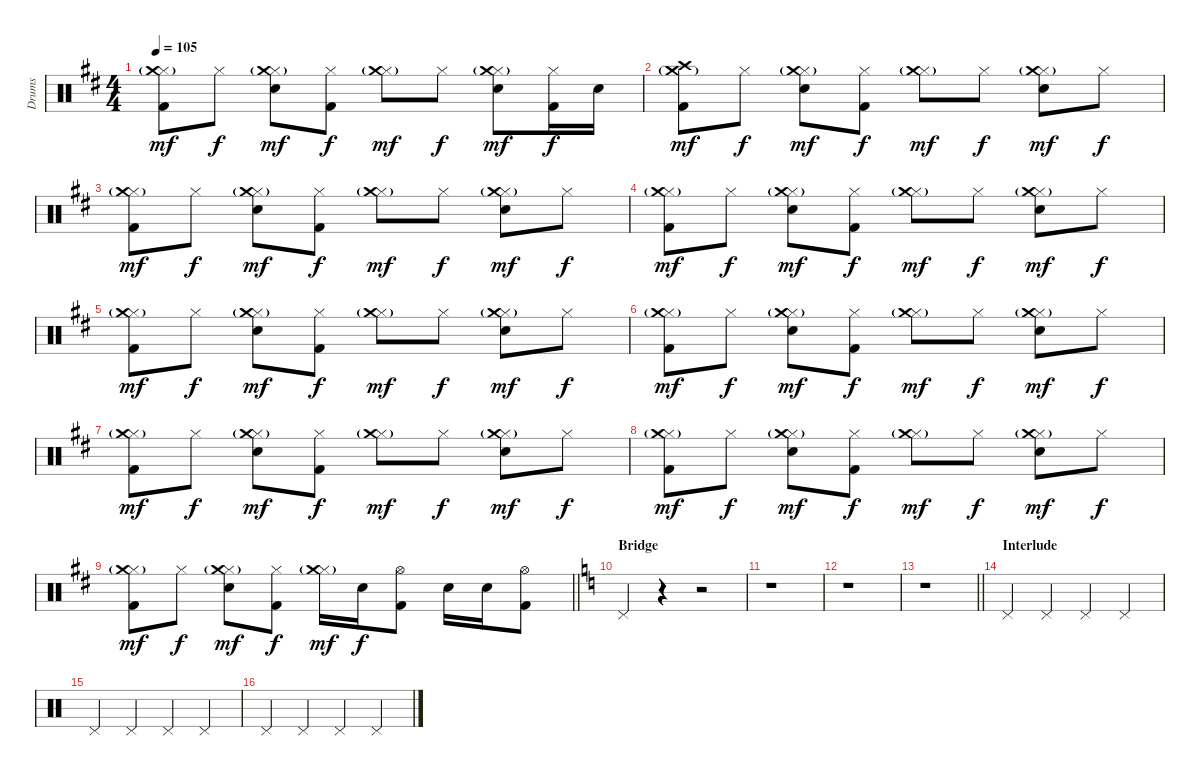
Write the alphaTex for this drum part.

\track ("Drums" "Drums") {instrument percussion}
\staff {score}
\articulation defaults
\ts (4 4)
\tempo 105
\clef neutral
\ks bminor
("Hi-Hat (closed)" "Crash medium (hit)"{g} "Kick (hit) 2").8{dy mf} "Hi-Hat (closed)".8{dy f} ("Hi-Hat (closed)" "Crash medium (hit)"{g} "Electric Snare (hit)").8{dy mf} ("Hi-Hat (closed)" "Kick (hit) 2").8{dy f} ("Hi-Hat (closed)" "Crash medium (hit)"{g}).8{dy mf} "Hi-Hat (closed)".8{dy f} ("Hi-Hat (closed)" "Crash medium (hit)"{g} "Electric Snare (hit)").8{dy mf} ("Hi-Hat (closed)" "Kick (hit) 2").16{dy f} "Electric Snare (hit)".16 |
("Crash high (hit)" "Crash medium (hit)"{g} "Kick (hit) 2").8{dy mf} "Hi-Hat (closed)".8{dy f} ("Hi-Hat (closed)" "Crash medium (hit)"{g} "Electric Snare (hit)").8{dy mf} ("Hi-Hat (closed)" "Kick (hit) 2").8{dy f} ("Hi-Hat (closed)" "Crash medium (hit)"{g}).8{dy mf} "Hi-Hat (closed)".8{dy f} ("Hi-Hat (closed)" "Crash medium (hit)"{g} "Electric Snare (hit)").8{dy mf} "Hi-Hat (closed)".8{dy f} |
("Hi-Hat (closed)" "Crash medium (hit)"{g} "Kick (hit) 2").8{dy mf} "Hi-Hat (closed)".8{dy f} ("Hi-Hat (closed)" "Crash medium (hit)"{g} "Electric Snare (hit)").8{dy mf} ("Hi-Hat (closed)" "Kick (hit) 2").8{dy f} ("Hi-Hat (closed)" "Crash medium (hit)"{g}).8{dy mf} "Hi-Hat (closed)".8{dy f} ("Hi-Hat (closed)" "Crash medium (hit)"{g} "Electric Snare (hit)").8{dy mf} "Hi-Hat (closed)".8{dy f} |
("Hi-Hat (closed)" "Crash medium (hit)"{g} "Kick (hit) 2").8{dy mf} "Hi-Hat (closed)".8{dy f} ("Hi-Hat (closed)" "Crash medium (hit)"{g} "Electric Snare (hit)").8{dy mf} ("Hi-Hat (closed)" "Kick (hit) 2").8{dy f} ("Hi-Hat (closed)" "Crash medium (hit)"{g}).8{dy mf} "Hi-Hat (closed)".8{dy f} ("Hi-Hat (closed)" "Crash medium (hit)"{g} "Electric Snare (hit)").8{dy mf} "Hi-Hat (closed)".8{dy f} |
("Hi-Hat (closed)" "Crash medium (hit)"{g} "Kick (hit) 2").8{dy mf} "Hi-Hat (closed)".8{dy f} ("Hi-Hat (closed)" "Crash medium (hit)"{g} "Electric Snare (hit)").8{dy mf} ("Hi-Hat (closed)" "Kick (hit) 2").8{dy f} ("Hi-Hat (closed)" "Crash medium (hit)"{g}).8{dy mf} "Hi-Hat (closed)".8{dy f} ("Hi-Hat (closed)" "Crash medium (hit)"{g} "Electric Snare (hit)").8{dy mf} "Hi-Hat (closed)".8{dy f} |
("Hi-Hat (closed)" "Crash medium (hit)"{g} "Kick (hit) 2").8{dy mf} "Hi-Hat (closed)".8{dy f} ("Hi-Hat (closed)" "Crash medium (hit)"{g} "Electric Snare (hit)").8{dy mf} ("Hi-Hat (closed)" "Kick (hit) 2").8{dy f} ("Hi-Hat (closed)" "Crash medium (hit)"{g}).8{dy mf} "Hi-Hat (closed)".8{dy f} ("Hi-Hat (closed)" "Crash medium (hit)"{g} "Electric Snare (hit)").8{dy mf} "Hi-Hat (closed)".8{dy f} |
("Hi-Hat (closed)" "Crash medium (hit)"{g} "Kick (hit) 2").8{dy mf} "Hi-Hat (closed)".8{dy f} ("Hi-Hat (closed)" "Crash medium (hit)"{g} "Electric Snare (hit)").8{dy mf} ("Hi-Hat (closed)" "Kick (hit) 2").8{dy f} ("Hi-Hat (closed)" "Crash medium (hit)"{g}).8{dy mf} "Hi-Hat (closed)".8{dy f} ("Hi-Hat (closed)" "Crash medium (hit)"{g} "Electric Snare (hit)").8{dy mf} "Hi-Hat (closed)".8{dy f} |
("Hi-Hat (closed)" "Crash medium (hit)"{g} "Kick (hit) 2").8{dy mf} "Hi-Hat (closed)".8{dy f} ("Hi-Hat (closed)" "Crash medium (hit)"{g} "Electric Snare (hit)").8{dy mf} ("Hi-Hat (closed)" "Kick (hit) 2").8{dy f} ("Hi-Hat (closed)" "Crash medium (hit)"{g}).8{dy mf} "Hi-Hat (closed)".8{dy f} ("Hi-Hat (closed)" "Crash medium (hit)"{g} "Electric Snare (hit)").8{dy mf} "Hi-Hat (closed)".8{dy f} |
\barLineRight lightlight
("Hi-Hat (closed)" "Crash medium (hit)"{g} "Kick (hit) 2").8{dy mf} "Hi-Hat (closed)".8{dy f} ("Hi-Hat (closed)" "Crash medium (hit)"{g} "Electric Snare (hit)").8{dy mf} ("Hi-Hat (closed)" "Kick (hit) 2").8{dy f} ("Hi-Hat (closed)" "Crash medium (hit)"{g}).16{dy mf} "Electric Snare (hit)".16{dy f} ("Hi-Hat (open)" "Kick (hit) 2").8 "Electric Snare (hit)".16 "Electric Snare (hit)".16 ("Hi-Hat (open)" "Kick (hit) 2").8 |
\section ("" "Bridge")
\ks aminor "Pedal Hi-Hat (hit)".4
r.4 r.2 |
r.1 |
r.1 |
\barLineRight lightlight
r.1 |
\section ("" "Interlude")
"Pedal Hi-Hat (hit)".4 "Pedal Hi-Hat (hit)".4 "Pedal Hi-Hat (hit)".4 "Pedal Hi-Hat (hit)".4 |
"Pedal Hi-Hat (hit)".4 "Pedal Hi-Hat (hit)".4 "Pedal Hi-Hat (hit)".4 "Pedal Hi-Hat (hit)".4 |
"Pedal Hi-Hat (hit)".4 "Pedal Hi-Hat (hit)".4 "Pedal Hi-Hat (hit)".4 "Pedal Hi-Hat (hit)".4
